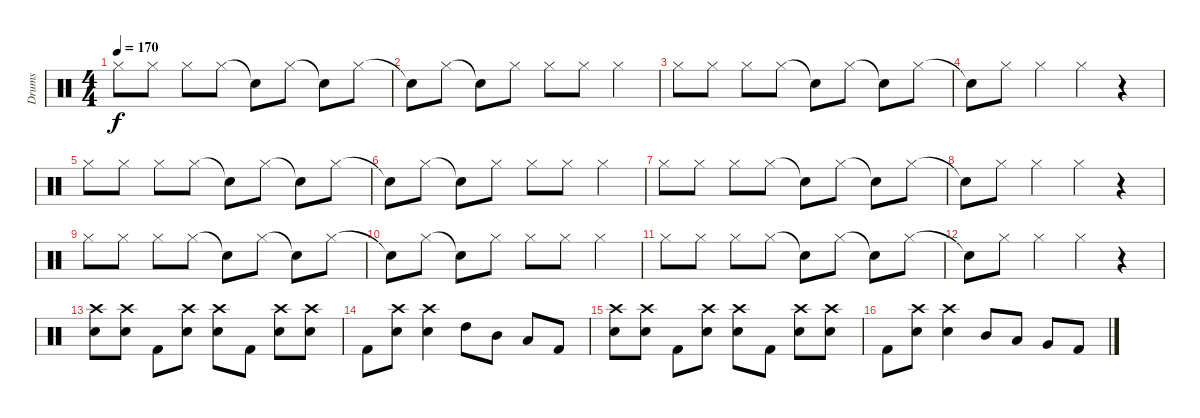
\track ("Drums" "Drums") {mute instrument percussion}
\staff {score}
\articulation defaults
\ts (4 4)
\tempo 170
\clef neutral
\ks c "Hi-Hat (closed)".8{dy f} "Hi-Hat (closed)".8 "Hi-Hat (closed)".8 "Hi-Hat (closed)".8 "Snare (hit)"{t}.8 "Hi-Hat (closed)".8 "Snare (hit)"{t}.8 "Hi-Hat (closed)".8
|
"Snare (hit)"{t}.8 "Hi-Hat (closed)".8 "Snare (hit)"{t}.8 "Hi-Hat (closed)".8 "Hi-Hat (closed)".8 "Hi-Hat (closed)".8 "Hi-Hat (closed)".4 |
"Hi-Hat (closed)".8 "Hi-Hat (closed)".8 "Hi-Hat (closed)".8 "Hi-Hat (closed)".8 "Snare (hit)"{t}.8 "Hi-Hat (closed)".8 "Snare (hit)"{t}.8 "Hi-Hat (closed)".8 |
"Snare (hit)"{t}.8 "Hi-Hat (closed)".8 "Hi-Hat (closed)".4 "Hi-Hat (closed)".4 r.4 |
"Hi-Hat (closed)".8 "Hi-Hat (closed)".8 "Hi-Hat (closed)".8 "Hi-Hat (closed)".8 "Snare (hit)"{t}.8 "Hi-Hat (closed)".8 "Snare (hit)"{t}.8 "Hi-Hat (closed)".8 |
"Snare (hit)"{t}.8 "Hi-Hat (closed)".8 "Snare (hit)"{t}.8 "Hi-Hat (closed)".8 "Hi-Hat (closed)".8 "Hi-Hat (closed)".8 "Hi-Hat (closed)".4 |
"Hi-Hat (closed)".8 "Hi-Hat (closed)".8 "Hi-Hat (closed)".8 "Hi-Hat (closed)".8 "Snare (hit)"{t}.8 "Hi-Hat (closed)".8 "Snare (hit)"{t}.8 "Hi-Hat (closed)".8 |
"Snare (hit)"{t}.8 "Hi-Hat (closed)".8 "Hi-Hat (closed)".4 "Hi-Hat (closed)".4 r.4 |
"Hi-Hat (closed)".8 "Hi-Hat (closed)".8 "Hi-Hat (closed)".8 "Hi-Hat (closed)".8 "Snare (hit)"{t}.8 "Hi-Hat (closed)".8 "Snare (hit)"{t}.8 "Hi-Hat (closed)".8 |
"Snare (hit)"{t}.8 "Hi-Hat (closed)".8 "Snare (hit)"{t}.8 "Hi-Hat (closed)".8 "Hi-Hat (closed)".8 "Hi-Hat (closed)".8 "Hi-Hat (closed)".4 |
"Hi-Hat (closed)".8 "Hi-Hat (closed)".8 "Hi-Hat (closed)".8 "Hi-Hat (closed)".8 "Snare (hit)"{t}.8 "Hi-Hat (closed)".8 "Snare (hit)"{t}.8 "Hi-Hat (closed)".8 |
"Snare (hit)"{t}.8 "Hi-Hat (closed)".8 "Hi-Hat (closed)".4 "Hi-Hat (closed)".4 r.4 |
("Crash high (hit)" "Electric Snare (hit)").8 ("Crash high (hit)" "Electric Snare (hit)").8 "Kick (hit) 2".8 ("Crash high (hit)" "Electric Snare (hit)").8 ("Crash high (hit)" "Electric Snare (hit)").8 "Kick (hit) 2".8 ("Crash high (hit)" "Electric Snare (hit)").8 ("Crash high (hit)" "Electric Snare (hit)").8 |
"Kick (hit) 2".8 ("Crash high (hit)" "Electric Snare (hit)").8 ("Crash high (hit)" "Electric Snare (hit)").4 "High Tom (hit)".8 "Mid Tom (hit)".8 "Low Tom (hit)".8 "Kick (hit) 2".8 |
("Crash high (hit)" "Electric Snare (hit)").8 ("Crash high (hit)" "Electric Snare (hit)").8 "Kick (hit) 2".8 ("Crash high (hit)" "Electric Snare (hit)").8 ("Crash high (hit)" "Electric Snare (hit)").8 "Kick (hit) 2".8 ("Crash high (hit)" "Electric Snare (hit)").8 ("Crash high (hit)" "Electric Snare (hit)").8 |
"Kick (hit) 2".8 ("Crash high (hit)" "Electric Snare (hit)").8 ("Crash high (hit)" "Electric Snare (hit)").4 "Mid Tom (hit)".8 "Low Tom (hit)".8 "Very Low Tom (hit)".8 "Kick (hit) 2".8
